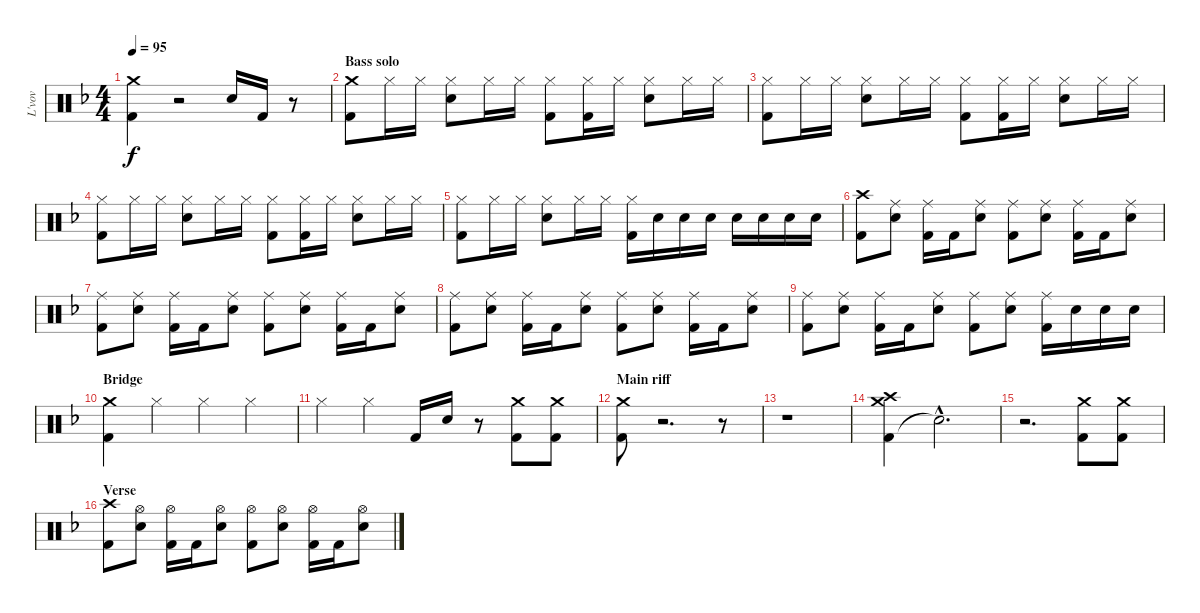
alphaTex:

\track ("L'vov" "L'vov") {instrument percussion}
\staff {score}
\articulation defaults
\ts (4 4)
\tempo 95
\clef neutral
\ks f
("Kick (hit) 2" "Crash medium (hit)").4{dy f} r.2 "Snare (hit) 2".16 "Kick (hit) 2".16 r.8 |
\section ("" "Bass solo")
("Crash medium (hit)" "Kick (hit) 2").8 "Hi-Hat (closed)".16 "Hi-Hat (closed)".16 ("Hi-Hat (closed)" "Snare (hit) 2").8 "Hi-Hat (closed)".16 "Hi-Hat (closed)".16 ("Hi-Hat (closed)" "Kick (hit) 2").8 ("Hi-Hat (closed)" "Kick (hit) 2").16 "Hi-Hat (closed)".16 ("Hi-Hat (closed)" "Snare (hit) 2").8 "Hi-Hat (closed)".16 "Hi-Hat (closed)".16 |
("Hi-Hat (closed)" "Kick (hit) 2").8 "Hi-Hat (closed)".16 "Hi-Hat (closed)".16 ("Hi-Hat (closed)" "Snare (hit) 2").8 "Hi-Hat (closed)".16 "Hi-Hat (closed)".16 ("Hi-Hat (closed)" "Kick (hit) 2").8 ("Hi-Hat (closed)" "Kick (hit) 2").16 "Hi-Hat (closed)".16 ("Hi-Hat (closed)" "Snare (hit) 2").8 "Hi-Hat (closed)".16 "Hi-Hat (closed)".16 |
("Hi-Hat (closed)" "Kick (hit) 2").8 "Hi-Hat (closed)".16 "Hi-Hat (closed)".16 ("Hi-Hat (closed)" "Snare (hit) 2").8 "Hi-Hat (closed)".16 "Hi-Hat (closed)".16 ("Hi-Hat (closed)" "Kick (hit) 2").8 ("Hi-Hat (closed)" "Kick (hit) 2").16 "Hi-Hat (closed)".16 ("Hi-Hat (closed)" "Snare (hit) 2").8 "Hi-Hat (closed)".16 "Hi-Hat (closed)".16 |
("Kick (hit) 2" "Hi-Hat (closed)").8 "Hi-Hat (closed)".16 "Hi-Hat (closed)".16 ("Snare (hit) 2" "Hi-Hat (closed)").8 "Hi-Hat (closed)".16 "Hi-Hat (closed)".16 ("Kick (hit) 2" "Hi-Hat (closed)").16 "Snare (hit) 2".16 "Snare (hit) 2".16 "Snare (hit) 2".16 "Snare (hit) 2".16 "Snare (hit) 2".16 "Snare (hit) 2".16 "Snare (hit) 2".16 |
("Kick (hit) 2" "Crash high (hit)").8 ("Snare (hit) 2" "Ride (middle)").8 ("Kick (hit) 2" "Ride (middle)").16 "Kick (hit) 2".16 ("Snare (hit) 2" "Ride (middle)").8 ("Kick (hit) 2" "Ride (middle)").8 ("Snare (hit) 2" "Ride (middle)").8 ("Kick (hit) 2" "Ride (middle)").16 "Kick (hit) 2".16 ("Snare (hit) 2" "Ride (middle)").8 |
("Kick (hit) 2" "Ride (middle)").8 ("Snare (hit) 2" "Ride (middle)").8 ("Kick (hit) 2" "Ride (middle)").16 "Kick (hit) 2".16 ("Snare (hit) 2" "Ride (middle)").8 ("Kick (hit) 2" "Ride (middle)").8 ("Snare (hit) 2" "Ride (middle)").8 ("Kick (hit) 2" "Ride (middle)").16 "Kick (hit) 2".16 ("Snare (hit) 2" "Ride (middle)").8 |
("Kick (hit) 2" "Ride (middle)").8 ("Snare (hit) 2" "Ride (middle)").8 ("Kick (hit) 2" "Ride (middle)").16 "Kick (hit) 2".16 ("Snare (hit) 2" "Ride (middle)").8 ("Kick (hit) 2" "Ride (middle)").8 ("Snare (hit) 2" "Ride (middle)").8 ("Kick (hit) 2" "Ride (middle)").16 "Kick (hit) 2".16 ("Snare (hit) 2" "Ride (middle)").8 |
("Kick (hit) 2" "Ride (middle)").8 ("Snare (hit) 2" "Ride (middle)").8 ("Kick (hit) 2" "Ride (middle)").16 "Kick (hit) 2".16 ("Snare (hit) 2" "Ride (middle)").8 ("Kick (hit) 2" "Ride (middle)").8 ("Snare (hit) 2" "Ride (middle)").8 ("Kick (hit) 2" "Ride (middle)").16 "Snare (hit) 2".16 "Snare (hit) 2".16 "Snare (hit) 2".16 |
\section ("" "Bridge")
("Kick (hit) 2" "Crash medium (hit)").4 "Hi-Hat (closed)".4 "Hi-Hat (closed)".4 "Hi-Hat (closed)".4 |
"Hi-Hat (closed)".4 "Hi-Hat (closed)".4 "Kick (hit) 2".16 "Snare (hit) 2".16 r.8 ("Kick (hit) 2" "Crash medium (hit)").8 ("Kick (hit) 2" "Crash medium (hit)").8 |
\section ("" "Main riff")
("Kick (hit) 2" "Crash medium (hit)").8 r.2{d} r.8 |
r.1 |
("Kick (hit) 2" "Crash high (hit)" "Crash medium (hit)").4 "Snare (hit)"{hac t}.2{d} |
r.2{d} ("Kick (hit) 2" "Crash medium (hit)").8 ("Kick (hit) 2" "Crash medium (hit)").8 |
\section ("" "Verse")
("Kick (hit) 2" "Crash high (hit)").8 ("Snare (hit) 2" "Hi-Hat (open)").8 ("Kick (hit) 2" "Hi-Hat (open)").16 "Kick (hit) 2".16 ("Snare (hit) 2" "Hi-Hat (open)").8 ("Kick (hit) 2" "Hi-Hat (open)").8 ("Snare (hit) 2" "Hi-Hat (open)").8 ("Kick (hit) 2" "Hi-Hat (open)").16 "Kick (hit) 2".16 ("Snare (hit) 2" "Hi-Hat (open)").8
